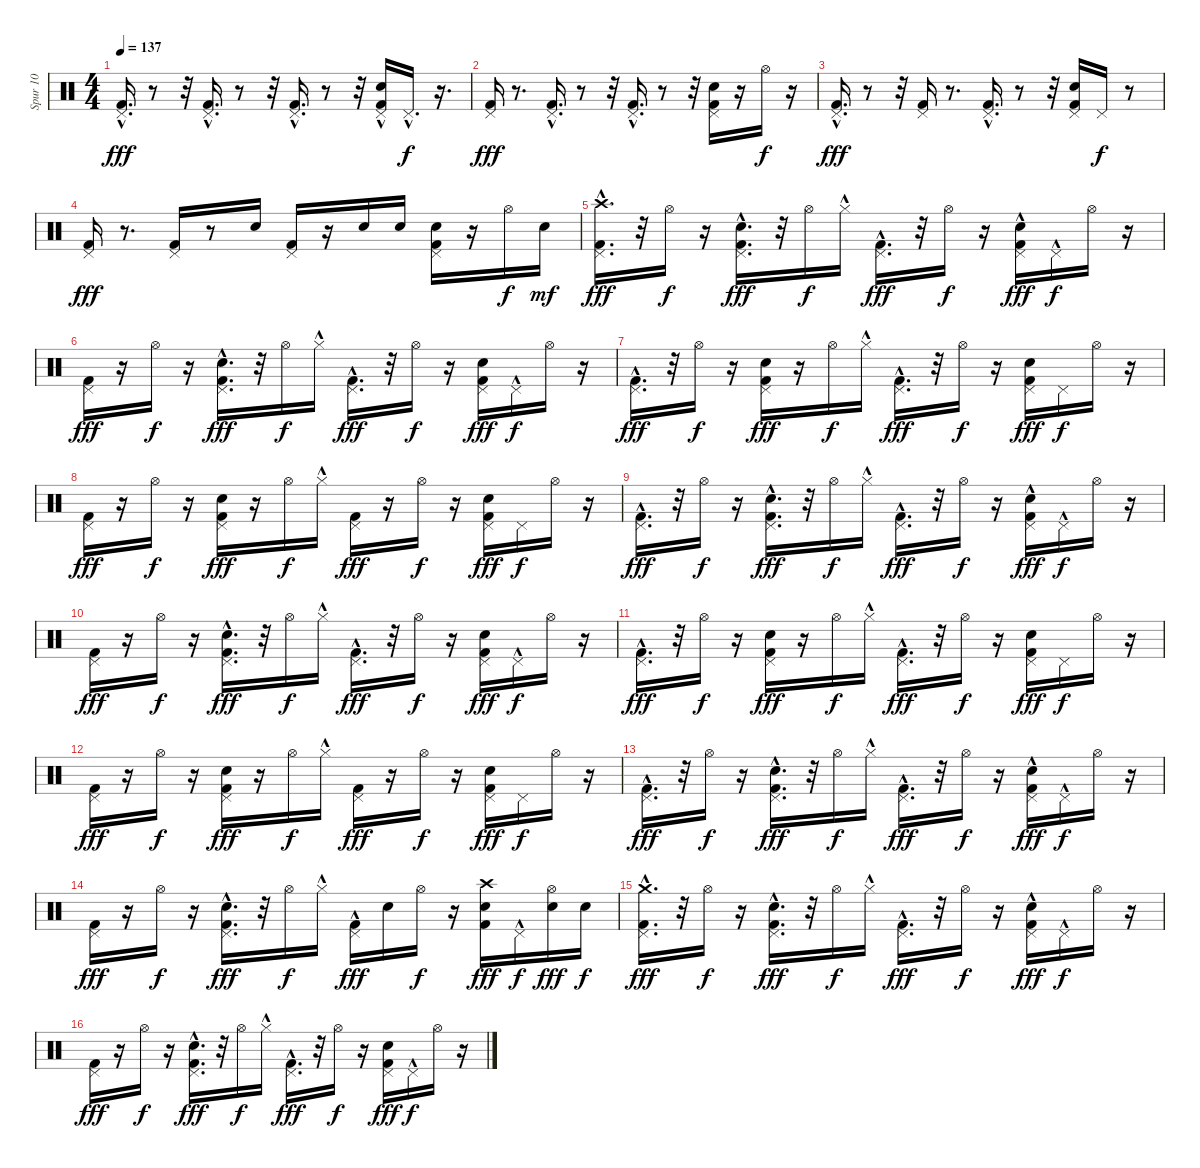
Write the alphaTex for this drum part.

\track ("Spur 10" "Spur 10") {instrument percussion}
\staff {score}
\articulation defaults
\ts (4 4)
\tempo 137
\clef neutral
\ks c
("Pedal Hi-Hat (hit)" "Kick (hit) 2"{hac}).16{d dy fff} r.8 r.32 ("Pedal Hi-Hat (hit)" "Kick (hit) 2"{hac}).16{d} r.8 r.32 ("Pedal Hi-Hat (hit)"{hac} "Kick (hit) 2"{hac}).16{d} r.8 r.32 ("Snare (hit) 2" "Pedal Hi-Hat (hit)" "Kick (hit) 2"{hac}).16 "Pedal Hi-Hat (hit)"{hac}.16{d dy f} r.16{d} |
("Pedal Hi-Hat (hit)" "Kick (hit) 2").16{dy fff} r.8{d} ("Pedal Hi-Hat (hit)" "Kick (hit) 2"{hac}).16{d} r.8 r.32 ("Pedal Hi-Hat (hit)" "Kick (hit) 2"{hac}).16{d} r.8 r.32 ("Snare (hit) 2" "Pedal Hi-Hat (hit)" "Kick (hit) 2").16 r.16 "Hi-Hat (open)".16{dy f} r.16 |
("Pedal Hi-Hat (hit)" "Kick (hit) 2"{hac}).16{d dy fff} r.8 r.32 ("Pedal Hi-Hat (hit)" "Kick (hit) 2").16 r.8{d} ("Pedal Hi-Hat (hit)" "Kick (hit) 2"{hac}).16{d} r.8 r.32 ("Snare (hit) 2" "Pedal Hi-Hat (hit)" "Kick (hit) 2").16 "Pedal Hi-Hat (hit)".16{dy f} r.8 |
("Pedal Hi-Hat (hit)" "Kick (hit) 2").16{dy fff} r.8{d} ("Pedal Hi-Hat (hit)" "Kick (hit) 2").16 r.8 "Snare (hit) 2".16 ("Pedal Hi-Hat (hit)" "Kick (hit) 2").16 r.16 "Snare (hit) 2".16 "Electric Snare (hit)".16 ("Snare (hit) 2" "Pedal Hi-Hat (hit)" "Kick (hit) 2").16 r.16 "Hi-Hat (open)".16{dy f} "Electric Snare (hit)".16{dy mf} |
("Crash high (hit)" "Pedal Hi-Hat (hit)" "Kick (hit) 2"{hac}).16{d dy fff} r.32 "Hi-Hat (open)".16{dy f} r.16 ("Snare (hit) 2" "Pedal Hi-Hat (hit)" "Kick (hit) 2"{hac}).16{d dy fff} r.32 "Hi-Hat (open)".16{dy f} "Hi-Hat (closed)"{hac}.16 ("Pedal Hi-Hat (hit)"{hac} "Kick (hit) 2"{hac}).16{d dy fff} r.32 "Hi-Hat (open)".16{dy f} r.16 ("Snare (hit) 2" "Pedal Hi-Hat (hit)" "Kick (hit) 2"{hac}).16{dy fff} "Pedal Hi-Hat (hit)"{hac}.16{dy f} "Hi-Hat (open)".16 r.16 |
("Pedal Hi-Hat (hit)" "Kick (hit) 2").16{dy fff} r.16 "Hi-Hat (open)".16{dy f} r.16 ("Snare (hit) 2" "Pedal Hi-Hat (hit)" "Kick (hit) 2"{hac}).16{d dy fff} r.32 "Hi-Hat (open)".16{dy f} "Hi-Hat (closed)"{hac}.16 ("Pedal Hi-Hat (hit)" "Kick (hit) 2"{hac}).16{d dy fff} r.32 "Hi-Hat (open)".16{dy f} r.16 ("Snare (hit) 2" "Pedal Hi-Hat (hit)" "Kick (hit) 2").16{dy fff} "Pedal Hi-Hat (hit)"{hac}.16{dy f} "Hi-Hat (open)".16 r.16 |
("Pedal Hi-Hat (hit)" "Kick (hit) 2"{hac}).16{d dy fff} r.32 "Hi-Hat (open)".16{dy f} r.16 ("Snare (hit) 2" "Pedal Hi-Hat (hit)" "Kick (hit) 2").16{dy fff} r.16 "Hi-Hat (open)".16{dy f} "Hi-Hat (closed)"{hac}.16 ("Pedal Hi-Hat (hit)" "Kick (hit) 2"{hac}).16{d dy fff} r.32 "Hi-Hat (open)".16{dy f} r.16 ("Snare (hit) 2" "Pedal Hi-Hat (hit)" "Kick (hit) 2").16{dy fff} "Pedal Hi-Hat (hit)".16{dy f} "Hi-Hat (open)".16 r.16 |
("Pedal Hi-Hat (hit)" "Kick (hit) 2").16{dy fff} r.16 "Hi-Hat (open)".16{dy f} r.16 ("Snare (hit) 2" "Pedal Hi-Hat (hit)" "Kick (hit) 2").16{dy fff} r.16 "Hi-Hat (open)".16{dy f} "Hi-Hat (closed)"{hac}.16 ("Pedal Hi-Hat (hit)" "Kick (hit) 2").16{dy fff} r.16 "Hi-Hat (open)".16{dy f} r.16 ("Snare (hit) 2" "Pedal Hi-Hat (hit)" "Kick (hit) 2").16{dy fff} "Pedal Hi-Hat (hit)".16{dy f} "Hi-Hat (open)".16 r.16 |
("Pedal Hi-Hat (hit)" "Kick (hit) 2"{hac}).16{d dy fff} r.32 "Hi-Hat (open)".16{dy f} r.16 ("Snare (hit) 2" "Pedal Hi-Hat (hit)" "Kick (hit) 2"{hac}).16{d dy fff} r.32 "Hi-Hat (open)".16{dy f} "Hi-Hat (closed)"{hac}.16 ("Pedal Hi-Hat (hit)"{hac} "Kick (hit) 2"{hac}).16{d dy fff} r.32 "Hi-Hat (open)".16{dy f} r.16 ("Snare (hit) 2" "Pedal Hi-Hat (hit)" "Kick (hit) 2"{hac}).16{dy fff} "Pedal Hi-Hat (hit)"{hac}.16{dy f} "Hi-Hat (open)".16 r.16 |
("Pedal Hi-Hat (hit)" "Kick (hit) 2").16{dy fff} r.16 "Hi-Hat (open)".16{dy f} r.16 ("Snare (hit) 2" "Pedal Hi-Hat (hit)" "Kick (hit) 2"{hac}).16{d dy fff} r.32 "Hi-Hat (open)".16{dy f} "Hi-Hat (closed)"{hac}.16 ("Pedal Hi-Hat (hit)" "Kick (hit) 2"{hac}).16{d dy fff} r.32 "Hi-Hat (open)".16{dy f} r.16 ("Snare (hit) 2" "Pedal Hi-Hat (hit)" "Kick (hit) 2").16{dy fff} "Pedal Hi-Hat (hit)"{hac}.16{dy f} "Hi-Hat (open)".16 r.16 |
("Pedal Hi-Hat (hit)" "Kick (hit) 2"{hac}).16{d dy fff} r.32 "Hi-Hat (open)".16{dy f} r.16 ("Snare (hit) 2" "Pedal Hi-Hat (hit)" "Kick (hit) 2").16{dy fff} r.16 "Hi-Hat (open)".16{dy f} "Hi-Hat (closed)"{hac}.16 ("Pedal Hi-Hat (hit)" "Kick (hit) 2"{hac}).16{d dy fff} r.32 "Hi-Hat (open)".16{dy f} r.16 ("Snare (hit) 2" "Pedal Hi-Hat (hit)" "Kick (hit) 2").16{dy fff} "Pedal Hi-Hat (hit)".16{dy f} "Hi-Hat (open)".16 r.16 |
("Pedal Hi-Hat (hit)" "Kick (hit) 2").16{dy fff} r.16 "Hi-Hat (open)".16{dy f} r.16 ("Snare (hit) 2" "Pedal Hi-Hat (hit)" "Kick (hit) 2").16{dy fff} r.16 "Hi-Hat (open)".16{dy f} "Hi-Hat (closed)"{hac}.16 ("Pedal Hi-Hat (hit)" "Kick (hit) 2").16{dy fff} r.16 "Hi-Hat (open)".16{dy f} r.16 ("Snare (hit) 2" "Pedal Hi-Hat (hit)" "Kick (hit) 2").16{dy fff} "Pedal Hi-Hat (hit)".16{dy f} "Hi-Hat (open)".16 r.16 |
("Pedal Hi-Hat (hit)" "Kick (hit) 2"{hac}).16{d dy fff} r.32 "Hi-Hat (open)".16{dy f} r.16 ("Snare (hit) 2" "Pedal Hi-Hat (hit)" "Kick (hit) 2"{hac}).16{d dy fff} r.32 "Hi-Hat (open)".16{dy f} "Hi-Hat (closed)"{hac}.16 ("Pedal Hi-Hat (hit)"{hac} "Kick (hit) 2"{hac}).16{d dy fff} r.32 "Hi-Hat (open)".16{dy f} r.16 ("Snare (hit) 2" "Pedal Hi-Hat (hit)" "Kick (hit) 2"{hac}).16{dy fff} "Pedal Hi-Hat (hit)"{hac}.16{dy f} "Hi-Hat (open)".16 r.16 |
("Pedal Hi-Hat (hit)" "Kick (hit) 2").16{dy fff} r.16 "Hi-Hat (open)".16{dy f} r.16 ("Snare (hit) 2" "Pedal Hi-Hat (hit)" "Kick (hit) 2"{hac}).16{d dy fff} r.32 "Hi-Hat (open)".16{dy f} "Hi-Hat (closed)"{hac}.16 ("Pedal Hi-Hat (hit)" "Kick (hit) 2"{hac}).16{dy fff} "Snare (hit) 2".16 "Hi-Hat (open)".16{dy f} r.16 ("Crash high (hit)" "Snare (hit) 2" "Kick (hit) 2").16{dy fff} "Pedal Hi-Hat (hit)"{hac}.16{dy f} ("Snare (hit) 2" "Hi-Hat (open)").16{dy fff} "Snare (hit) 2".16{dy f} |
("Crash medium (hit)" "Pedal Hi-Hat (hit)" "Kick (hit) 2"{hac}).16{d dy fff} r.32 "Hi-Hat (open)".16{dy f} r.16 ("Snare (hit) 2" "Pedal Hi-Hat (hit)" "Kick (hit) 2"{hac}).16{d dy fff} r.32 "Hi-Hat (open)".16{dy f} "Hi-Hat (closed)"{hac}.16 ("Pedal Hi-Hat (hit)"{hac} "Kick (hit) 2"{hac}).16{d dy fff} r.32 "Hi-Hat (open)".16{dy f} r.16 ("Snare (hit) 2" "Pedal Hi-Hat (hit)" "Kick (hit) 2"{hac}).16{dy fff} "Pedal Hi-Hat (hit)"{hac}.16{dy f} "Hi-Hat (open)".16 r.16 |
("Pedal Hi-Hat (hit)" "Kick (hit) 2").16{dy fff} r.16 "Hi-Hat (open)".16{dy f} r.16 ("Snare (hit) 2" "Pedal Hi-Hat (hit)" "Kick (hit) 2"{hac}).16{d dy fff} r.32 "Hi-Hat (open)".16{dy f} "Hi-Hat (closed)"{hac}.16 ("Pedal Hi-Hat (hit)" "Kick (hit) 2"{hac}).16{d dy fff} r.32 "Hi-Hat (open)".16{dy f} r.16 ("Snare (hit) 2" "Pedal Hi-Hat (hit)" "Kick (hit) 2").16{dy fff} "Pedal Hi-Hat (hit)"{hac}.16{dy f} "Hi-Hat (open)".16 r.16
